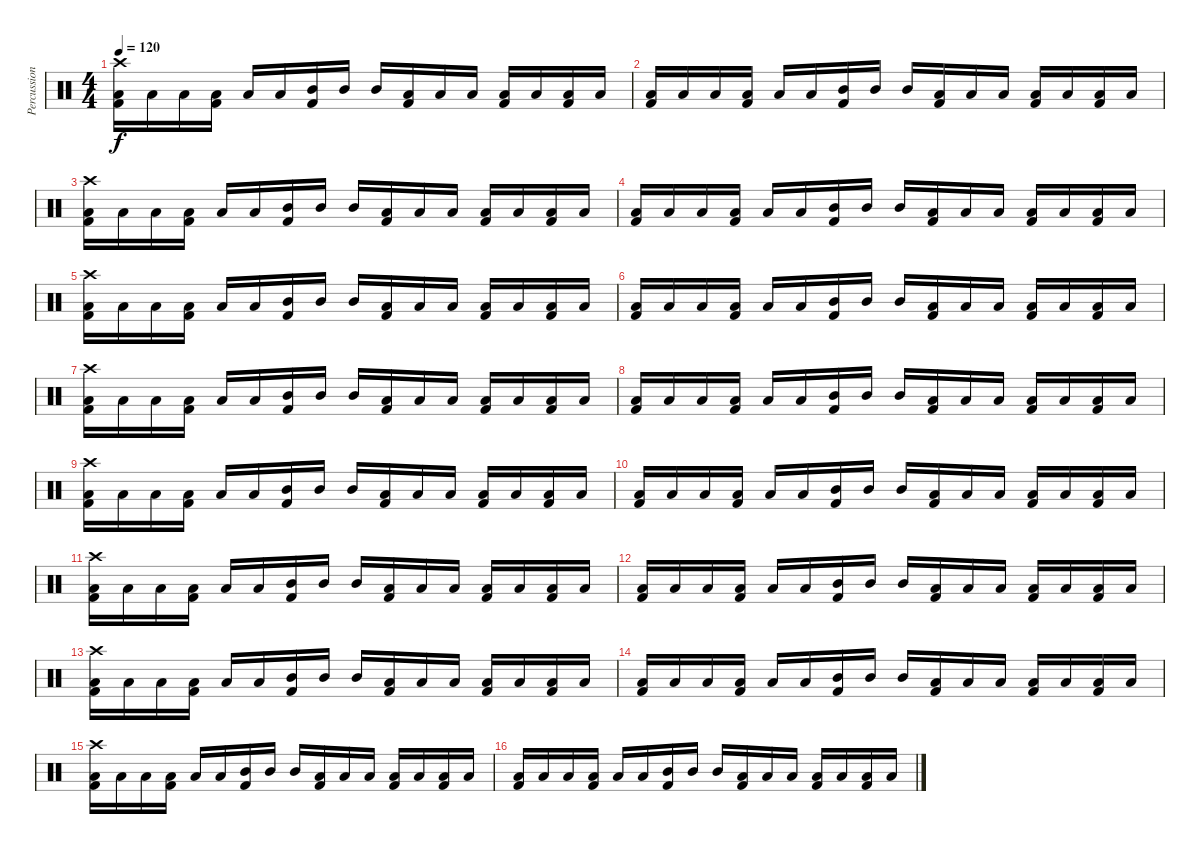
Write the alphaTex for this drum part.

\track ("Percussion" "Percussion") {instrument percussion}
\staff {score}
\articulation defaults
\ts (4 4)
\tempo 120
\clef neutral
\ks c
("Crash high (hit)" "Low Floor Tom (hit)" "Kick (hit) 2").16{dy f} "Low Floor Tom (hit)".16 "Low Floor Tom (hit)".16 ("Low Tom (hit)" "Kick (hit) 2").16 "Low Tom (hit)".16 "Low Tom (hit)".16 ("Mid Tom (hit)" "Kick (hit) 2").16 "Mid Tom (hit)".16 "Mid Tom (hit)".16 ("Low Tom (hit)" "Kick (hit) 2").16 "Low Tom (hit)".16 "Low Tom (hit)".16 ("Low Floor Tom (hit)" "Kick (hit) 2").16 "Low Floor Tom (hit)".16 ("Low Tom (hit)" "Kick (hit) 2").16 "Low Tom (hit)".16 |
("Low Floor Tom (hit)" "Kick (hit) 2").16 "Low Floor Tom (hit)".16 "Low Floor Tom (hit)".16 ("Low Tom (hit)" "Kick (hit) 2").16 "Low Tom (hit)".16 "Low Tom (hit)".16 ("Mid Tom (hit)" "Kick (hit) 2").16 "Mid Tom (hit)".16 "Mid Tom (hit)".16 ("Low Tom (hit)" "Kick (hit) 2").16 "Low Tom (hit)".16 "Low Tom (hit)".16 ("Low Floor Tom (hit)" "Kick (hit) 2").16 "Low Floor Tom (hit)".16 ("Low Tom (hit)" "Kick (hit) 2").16 "Low Tom (hit)".16 |
("Crash high (hit)" "Low Floor Tom (hit)" "Kick (hit) 2").16 "Low Floor Tom (hit)".16 "Low Floor Tom (hit)".16 ("Low Tom (hit)" "Kick (hit) 2").16 "Low Tom (hit)".16 "Low Tom (hit)".16 ("Mid Tom (hit)" "Kick (hit) 2").16 "Mid Tom (hit)".16 "Mid Tom (hit)".16 ("Low Tom (hit)" "Kick (hit) 2").16 "Low Tom (hit)".16 "Low Tom (hit)".16 ("Low Floor Tom (hit)" "Kick (hit) 2").16 "Low Floor Tom (hit)".16 ("Low Tom (hit)" "Kick (hit) 2").16 "Low Tom (hit)".16 |
("Low Floor Tom (hit)" "Kick (hit) 2").16 "Low Floor Tom (hit)".16 "Low Floor Tom (hit)".16 ("Low Tom (hit)" "Kick (hit) 2").16 "Low Tom (hit)".16 "Low Tom (hit)".16 ("Mid Tom (hit)" "Kick (hit) 2").16 "Mid Tom (hit)".16 "Mid Tom (hit)".16 ("Low Tom (hit)" "Kick (hit) 2").16 "Low Tom (hit)".16 "Low Tom (hit)".16 ("Low Floor Tom (hit)" "Kick (hit) 2").16 "Low Floor Tom (hit)".16 ("Low Tom (hit)" "Kick (hit) 2").16 "Low Tom (hit)".16 |
("Crash high (hit)" "Low Floor Tom (hit)" "Kick (hit) 2").16 "Low Floor Tom (hit)".16 "Low Floor Tom (hit)".16 ("Low Tom (hit)" "Kick (hit) 2").16 "Low Tom (hit)".16 "Low Tom (hit)".16 ("Mid Tom (hit)" "Kick (hit) 2").16 "Mid Tom (hit)".16 "Mid Tom (hit)".16 ("Low Tom (hit)" "Kick (hit) 2").16 "Low Tom (hit)".16 "Low Tom (hit)".16 ("Low Floor Tom (hit)" "Kick (hit) 2").16 "Low Floor Tom (hit)".16 ("Low Tom (hit)" "Kick (hit) 2").16 "Low Tom (hit)".16 |
("Low Floor Tom (hit)" "Kick (hit) 2").16 "Low Floor Tom (hit)".16 "Low Floor Tom (hit)".16 ("Low Tom (hit)" "Kick (hit) 2").16 "Low Tom (hit)".16 "Low Tom (hit)".16 ("Mid Tom (hit)" "Kick (hit) 2").16 "Mid Tom (hit)".16 "Mid Tom (hit)".16 ("Low Tom (hit)" "Kick (hit) 2").16 "Low Tom (hit)".16 "Low Tom (hit)".16 ("Low Floor Tom (hit)" "Kick (hit) 2").16 "Low Floor Tom (hit)".16 ("Low Tom (hit)" "Kick (hit) 2").16 "Low Tom (hit)".16 |
("Crash high (hit)" "Low Floor Tom (hit)" "Kick (hit) 2").16 "Low Floor Tom (hit)".16 "Low Floor Tom (hit)".16 ("Low Tom (hit)" "Kick (hit) 2").16 "Low Tom (hit)".16 "Low Tom (hit)".16 ("Mid Tom (hit)" "Kick (hit) 2").16 "Mid Tom (hit)".16 "Mid Tom (hit)".16 ("Low Tom (hit)" "Kick (hit) 2").16 "Low Tom (hit)".16 "Low Tom (hit)".16 ("Low Floor Tom (hit)" "Kick (hit) 2").16 "Low Floor Tom (hit)".16 ("Low Tom (hit)" "Kick (hit) 2").16 "Low Tom (hit)".16 |
("Low Floor Tom (hit)" "Kick (hit) 2").16 "Low Floor Tom (hit)".16 "Low Floor Tom (hit)".16 ("Low Tom (hit)" "Kick (hit) 2").16 "Low Tom (hit)".16 "Low Tom (hit)".16 ("Mid Tom (hit)" "Kick (hit) 2").16 "Mid Tom (hit)".16 "Mid Tom (hit)".16 ("Low Tom (hit)" "Kick (hit) 2").16 "Low Tom (hit)".16 "Low Tom (hit)".16 ("Low Floor Tom (hit)" "Kick (hit) 2").16 "Low Floor Tom (hit)".16 ("Low Tom (hit)" "Kick (hit) 2").16 "Low Tom (hit)".16 |
("Crash high (hit)" "Low Floor Tom (hit)" "Kick (hit) 2").16 "Low Floor Tom (hit)".16 "Low Floor Tom (hit)".16 ("Low Tom (hit)" "Kick (hit) 2").16 "Low Tom (hit)".16 "Low Tom (hit)".16 ("Mid Tom (hit)" "Kick (hit) 2").16 "Mid Tom (hit)".16 "Mid Tom (hit)".16 ("Low Tom (hit)" "Kick (hit) 2").16 "Low Tom (hit)".16 "Low Tom (hit)".16 ("Low Floor Tom (hit)" "Kick (hit) 2").16 "Low Floor Tom (hit)".16 ("Low Tom (hit)" "Kick (hit) 2").16 "Low Tom (hit)".16 |
("Low Floor Tom (hit)" "Kick (hit) 2").16 "Low Floor Tom (hit)".16 "Low Floor Tom (hit)".16 ("Low Tom (hit)" "Kick (hit) 2").16 "Low Tom (hit)".16 "Low Tom (hit)".16 ("Mid Tom (hit)" "Kick (hit) 2").16 "Mid Tom (hit)".16 "Mid Tom (hit)".16 ("Low Tom (hit)" "Kick (hit) 2").16 "Low Tom (hit)".16 "Low Tom (hit)".16 ("Low Floor Tom (hit)" "Kick (hit) 2").16 "Low Floor Tom (hit)".16 ("Low Tom (hit)" "Kick (hit) 2").16 "Low Tom (hit)".16 |
("Crash high (hit)" "Low Floor Tom (hit)" "Kick (hit) 2").16 "Low Floor Tom (hit)".16 "Low Floor Tom (hit)".16 ("Low Tom (hit)" "Kick (hit) 2").16 "Low Tom (hit)".16 "Low Tom (hit)".16 ("Mid Tom (hit)" "Kick (hit) 2").16 "Mid Tom (hit)".16 "Mid Tom (hit)".16 ("Low Tom (hit)" "Kick (hit) 2").16 "Low Tom (hit)".16 "Low Tom (hit)".16 ("Low Floor Tom (hit)" "Kick (hit) 2").16 "Low Floor Tom (hit)".16 ("Low Tom (hit)" "Kick (hit) 2").16 "Low Tom (hit)".16 |
("Low Floor Tom (hit)" "Kick (hit) 2").16 "Low Floor Tom (hit)".16 "Low Floor Tom (hit)".16 ("Low Tom (hit)" "Kick (hit) 2").16 "Low Tom (hit)".16 "Low Tom (hit)".16 ("Mid Tom (hit)" "Kick (hit) 2").16 "Mid Tom (hit)".16 "Mid Tom (hit)".16 ("Low Tom (hit)" "Kick (hit) 2").16 "Low Tom (hit)".16 "Low Tom (hit)".16 ("Low Floor Tom (hit)" "Kick (hit) 2").16 "Low Floor Tom (hit)".16 ("Low Tom (hit)" "Kick (hit) 2").16 "Low Tom (hit)".16 |
("Crash high (hit)" "Low Floor Tom (hit)" "Kick (hit) 2").16 "Low Floor Tom (hit)".16 "Low Floor Tom (hit)".16 ("Low Tom (hit)" "Kick (hit) 2").16 "Low Tom (hit)".16 "Low Tom (hit)".16 ("Mid Tom (hit)" "Kick (hit) 2").16 "Mid Tom (hit)".16 "Mid Tom (hit)".16 ("Low Tom (hit)" "Kick (hit) 2").16 "Low Tom (hit)".16 "Low Tom (hit)".16 ("Low Floor Tom (hit)" "Kick (hit) 2").16 "Low Floor Tom (hit)".16 ("Low Tom (hit)" "Kick (hit) 2").16 "Low Tom (hit)".16 |
("Low Floor Tom (hit)" "Kick (hit) 2").16 "Low Floor Tom (hit)".16 "Low Floor Tom (hit)".16 ("Low Tom (hit)" "Kick (hit) 2").16 "Low Tom (hit)".16 "Low Tom (hit)".16 ("Mid Tom (hit)" "Kick (hit) 2").16 "Mid Tom (hit)".16 "Mid Tom (hit)".16 ("Low Tom (hit)" "Kick (hit) 2").16 "Low Tom (hit)".16 "Low Tom (hit)".16 ("Low Floor Tom (hit)" "Kick (hit) 2").16 "Low Floor Tom (hit)".16 ("Low Tom (hit)" "Kick (hit) 2").16 "Low Tom (hit)".16 |
("Crash high (hit)" "Low Floor Tom (hit)" "Kick (hit) 2").16 "Low Floor Tom (hit)".16 "Low Floor Tom (hit)".16 ("Low Tom (hit)" "Kick (hit) 2").16 "Low Tom (hit)".16 "Low Tom (hit)".16 ("Mid Tom (hit)" "Kick (hit) 2").16 "Mid Tom (hit)".16 "Mid Tom (hit)".16 ("Low Tom (hit)" "Kick (hit) 2").16 "Low Tom (hit)".16 "Low Tom (hit)".16 ("Low Floor Tom (hit)" "Kick (hit) 2").16 "Low Floor Tom (hit)".16 ("Low Tom (hit)" "Kick (hit) 2").16 "Low Tom (hit)".16 |
("Low Floor Tom (hit)" "Kick (hit) 2").16 "Low Floor Tom (hit)".16 "Low Floor Tom (hit)".16 ("Low Tom (hit)" "Kick (hit) 2").16 "Low Tom (hit)".16 "Low Tom (hit)".16 ("Mid Tom (hit)" "Kick (hit) 2").16 "Mid Tom (hit)".16 "Mid Tom (hit)".16 ("Low Tom (hit)" "Kick (hit) 2").16 "Low Tom (hit)".16 "Low Tom (hit)".16 ("Low Floor Tom (hit)" "Kick (hit) 2").16 "Low Floor Tom (hit)".16 ("Low Tom (hit)" "Kick (hit) 2").16 "Low Tom (hit)".16
